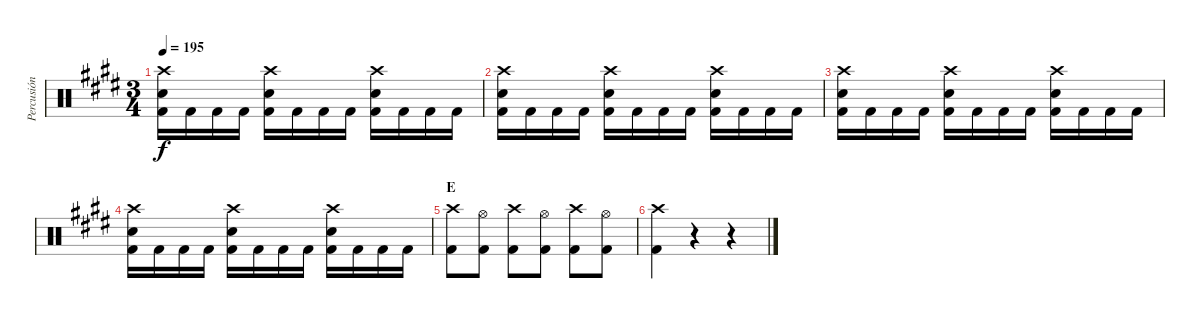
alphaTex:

\track ("Percusión" "Percusión") {instrument percussion}
\staff {score}
\articulation defaults
\ts (3 4)
\tempo 195
\clef neutral
\ks e
("Crash high (hit)" "Electric Snare (hit)" "Kick (hit) 2").16{dy f} "Kick (hit) 2".16 "Kick (hit) 2".16 "Kick (hit) 2".16 ("Crash high (hit)" "Electric Snare (hit)" "Kick (hit) 2").16 "Kick (hit) 2".16 "Kick (hit) 2".16 "Kick (hit) 2".16 ("Crash high (hit)" "Electric Snare (hit)" "Kick (hit) 2").16 "Kick (hit) 2".16 "Kick (hit) 2".16 "Kick (hit) 2".16 |
("Crash high (hit)" "Electric Snare (hit)" "Kick (hit) 2").16 "Kick (hit) 2".16 "Kick (hit) 2".16 "Kick (hit) 2".16 ("Crash high (hit)" "Electric Snare (hit)" "Kick (hit) 2").16 "Kick (hit) 2".16 "Kick (hit) 2".16 "Kick (hit) 2".16 ("Crash high (hit)" "Electric Snare (hit)" "Kick (hit) 2").16 "Kick (hit) 2".16 "Kick (hit) 2".16 "Kick (hit) 2".16 |
("Crash high (hit)" "Electric Snare (hit)" "Kick (hit) 2").16 "Kick (hit) 2".16 "Kick (hit) 2".16 "Kick (hit) 2".16 ("Crash high (hit)" "Electric Snare (hit)" "Kick (hit) 2").16 "Kick (hit) 2".16 "Kick (hit) 2".16 "Kick (hit) 2".16 ("Crash high (hit)" "Electric Snare (hit)" "Kick (hit) 2").16 "Kick (hit) 2".16 "Kick (hit) 2".16 "Kick (hit) 2".16 |
("Crash high (hit)" "Electric Snare (hit)" "Kick (hit) 2").16 "Kick (hit) 2".16 "Kick (hit) 2".16 "Kick (hit) 2".16 ("Crash high (hit)" "Electric Snare (hit)" "Kick (hit) 2").16 "Kick (hit) 2".16 "Kick (hit) 2".16 "Kick (hit) 2".16 ("Crash high (hit)" "Electric Snare (hit)" "Kick (hit) 2").16 "Kick (hit) 2".16 "Kick (hit) 2".16 "Kick (hit) 2".16 |
\section ("" "E")
("Crash high (hit)" "Kick (hit) 2").8 ("Hi-Hat (open)" "Kick (hit) 2").8 ("Crash high (hit)" "Kick (hit) 2").8 ("Hi-Hat (open)" "Kick (hit) 2").8 ("Crash high (hit)" "Kick (hit) 2").8 ("Hi-Hat (open)" "Kick (hit) 2").8 |
("Crash high (hit)" "Kick (hit) 2").4 r.4 r.4
